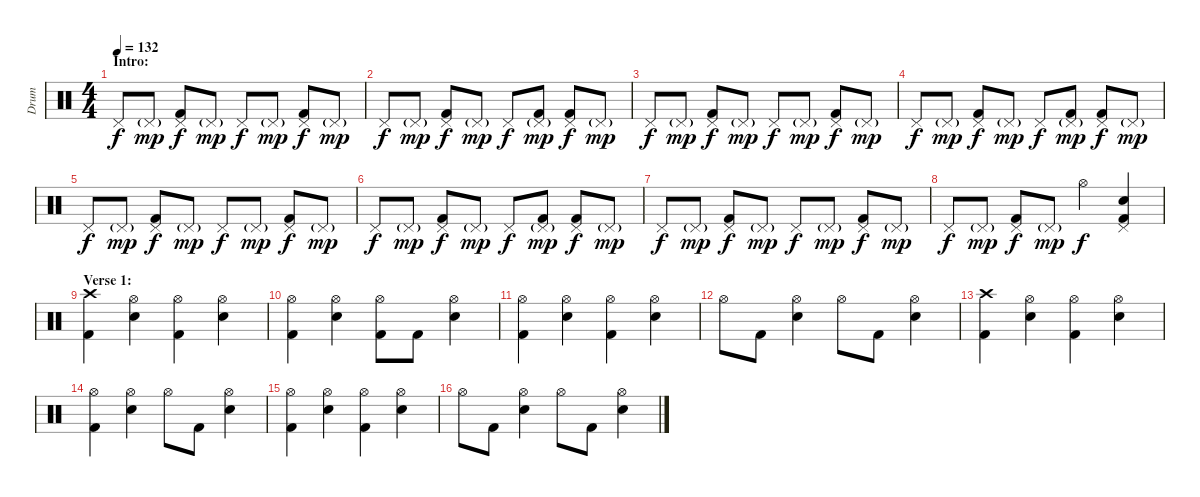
\track ("Drum" "Drum") {instrument percussion}
\staff {score}
\articulation defaults
\ts (4 4)
\section ("" "Intro:")
\tempo 132
\clef neutral
\ks c "Pedal Hi-Hat (hit)".8{dy f} "Pedal Hi-Hat (hit)"{g}.8{dy mp}
("Pedal Hi-Hat (hit)" "Kick (hit) 2").8{dy f} "Pedal Hi-Hat (hit)"{g}.8{dy mp} "Pedal Hi-Hat (hit)".8{dy f} "Pedal Hi-Hat (hit)"{g}.8{dy mp} ("Pedal Hi-Hat (hit)" "Kick (hit) 2").8{dy f} "Pedal Hi-Hat (hit)"{g}.8{dy mp} |
"Pedal Hi-Hat (hit)".8{dy f} "Pedal Hi-Hat (hit)"{g}.8{dy mp} ("Pedal Hi-Hat (hit)" "Kick (hit) 2").8{dy f} "Pedal Hi-Hat (hit)"{g}.8{dy mp} "Pedal Hi-Hat (hit)".8{dy f} ("Pedal Hi-Hat (hit)"{g} "Kick (hit) 2").8{dy mp} ("Pedal Hi-Hat (hit)" "Kick (hit) 2").8{dy f} "Pedal Hi-Hat (hit)"{g}.8{dy mp} |
"Pedal Hi-Hat (hit)".8{dy f} "Pedal Hi-Hat (hit)"{g}.8{dy mp} ("Pedal Hi-Hat (hit)" "Kick (hit) 2").8{dy f} "Pedal Hi-Hat (hit)"{g}.8{dy mp} "Pedal Hi-Hat (hit)".8{dy f} "Pedal Hi-Hat (hit)"{g}.8{dy mp} ("Pedal Hi-Hat (hit)" "Kick (hit) 2").8{dy f} "Pedal Hi-Hat (hit)"{g}.8{dy mp} |
"Pedal Hi-Hat (hit)".8{dy f} "Pedal Hi-Hat (hit)"{g}.8{dy mp} ("Pedal Hi-Hat (hit)" "Kick (hit) 2").8{dy f} "Pedal Hi-Hat (hit)"{g}.8{dy mp} "Pedal Hi-Hat (hit)".8{dy f} ("Pedal Hi-Hat (hit)"{g} "Kick (hit) 2").8{dy mp} ("Pedal Hi-Hat (hit)" "Kick (hit) 2").8{dy f} "Pedal Hi-Hat (hit)"{g}.8{dy mp} |
"Pedal Hi-Hat (hit)".8{dy f} "Pedal Hi-Hat (hit)"{g}.8{dy mp} ("Pedal Hi-Hat (hit)" "Kick (hit) 2").8{dy f} "Pedal Hi-Hat (hit)"{g}.8{dy mp} "Pedal Hi-Hat (hit)".8{dy f} "Pedal Hi-Hat (hit)"{g}.8{dy mp} ("Pedal Hi-Hat (hit)" "Kick (hit) 2").8{dy f} "Pedal Hi-Hat (hit)"{g}.8{dy mp} |
"Pedal Hi-Hat (hit)".8{dy f} "Pedal Hi-Hat (hit)"{g}.8{dy mp} ("Pedal Hi-Hat (hit)" "Kick (hit) 2").8{dy f} "Pedal Hi-Hat (hit)"{g}.8{dy mp} "Pedal Hi-Hat (hit)".8{dy f} ("Pedal Hi-Hat (hit)"{g} "Kick (hit) 2").8{dy mp} ("Pedal Hi-Hat (hit)" "Kick (hit) 2").8{dy f} "Pedal Hi-Hat (hit)"{g}.8{dy mp} |
"Pedal Hi-Hat (hit)".8{dy f} "Pedal Hi-Hat (hit)"{g}.8{dy mp} ("Pedal Hi-Hat (hit)" "Kick (hit) 2").8{dy f} "Pedal Hi-Hat (hit)"{g}.8{dy mp} "Pedal Hi-Hat (hit)".8{dy f} "Pedal Hi-Hat (hit)"{g}.8{dy mp} ("Pedal Hi-Hat (hit)" "Kick (hit) 2").8{dy f} "Pedal Hi-Hat (hit)"{g}.8{dy mp} |
"Pedal Hi-Hat (hit)".8{dy f} "Pedal Hi-Hat (hit)"{g}.8{dy mp} ("Pedal Hi-Hat (hit)" "Kick (hit) 2").8{dy f} "Pedal Hi-Hat (hit)"{g}.8{dy mp} "Hi-Hat (open)".4{dy f} ("Pedal Hi-Hat (hit)" "Snare (hit) 2" "Kick (hit) 2").4 |
\section ("" "Verse 1:")
("Crash high (hit)" "Kick (hit) 2").4 ("Hi-Hat (open)" "Snare (hit) 2").4 ("Hi-Hat (open)" "Kick (hit) 2").4 ("Hi-Hat (open)" "Snare (hit) 2").4 |
("Hi-Hat (open)" "Kick (hit) 2").4 ("Hi-Hat (open)" "Snare (hit) 2").4 ("Hi-Hat (open)" "Kick (hit) 2").8 "Kick (hit) 2".8 ("Hi-Hat (open)" "Snare (hit) 2").4 |
("Hi-Hat (open)" "Kick (hit) 2").4 ("Hi-Hat (open)" "Snare (hit) 2").4 ("Hi-Hat (open)" "Kick (hit) 2").4 ("Hi-Hat (open)" "Snare (hit) 2").4 |
"Hi-Hat (open)".8 "Kick (hit) 2".8 ("Hi-Hat (open)" "Snare (hit) 2").4 "Hi-Hat (open)".8 "Kick (hit) 2".8 ("Hi-Hat (open)" "Snare (hit) 2").4 |
("Crash high (hit)" "Kick (hit) 2").4 ("Hi-Hat (open)" "Snare (hit) 2").4 ("Hi-Hat (open)" "Kick (hit) 2").4 ("Hi-Hat (open)" "Snare (hit) 2").4 |
("Hi-Hat (open)" "Kick (hit) 2").4 ("Hi-Hat (open)" "Snare (hit) 2").4 "Hi-Hat (open)".8 "Kick (hit) 2".8 ("Hi-Hat (open)" "Snare (hit) 2").4 |
("Hi-Hat (open)" "Kick (hit) 2").4 ("Hi-Hat (open)" "Snare (hit) 2").4 ("Hi-Hat (open)" "Kick (hit) 2").4 ("Hi-Hat (open)" "Snare (hit) 2").4 |
"Hi-Hat (open)".8 "Kick (hit) 2".8 ("Hi-Hat (open)" "Snare (hit) 2").4 "Hi-Hat (open)".8 "Kick (hit) 2".8 ("Hi-Hat (open)" "Snare (hit) 2").4
